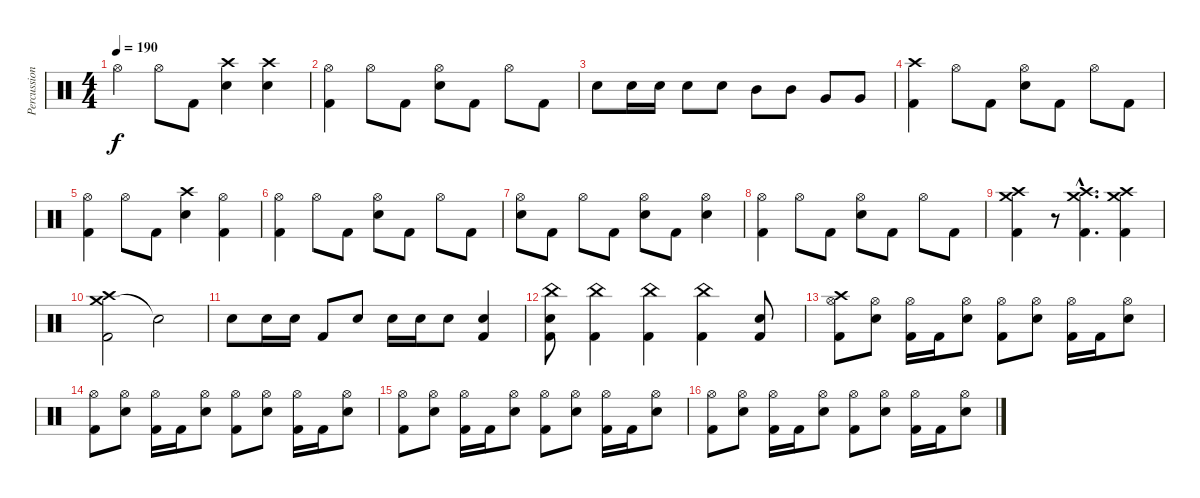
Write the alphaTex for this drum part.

\track ("Percussion" "Percussion") {instrument percussion}
\staff {score}
\articulation defaults
\ts (4 4)
\tempo 190
\clef neutral
\ks c "Hi-Hat (open)".4{dy f} "Hi-Hat (open)".8 "Kick (hit) 2".8
("Crash high (hit)" "Snare (hit) 2").4 ("Crash high (hit)" "Snare (hit) 2").4 |
("Hi-Hat (open)" "Kick (hit) 2").4 "Hi-Hat (open)".8 "Kick (hit) 2".8 ("Hi-Hat (open)" "Snare (hit) 2").8 "Kick (hit) 2".8 "Hi-Hat (open)".8 "Kick (hit) 2".8 |
"Snare (hit) 2".8 "Snare (hit) 2".16 "Snare (hit) 2".16 "Snare (hit) 2".8 "Snare (hit) 2".8 "Mid Tom (hit)".8 "Mid Tom (hit)".8 "Very Low Tom (hit)".8 "Very Low Tom (hit)".8 |
("Crash high (hit)" "Kick (hit) 2").4 "Hi-Hat (open)".8 "Kick (hit) 2".8 ("Hi-Hat (open)" "Snare (hit) 2").8 "Kick (hit) 2".8 "Hi-Hat (open)".8 "Kick (hit) 2".8 |
("Hi-Hat (open)" "Kick (hit) 2").4 "Hi-Hat (open)".8 "Kick (hit) 2".8 ("Crash high (hit)" "Snare (hit) 2").4 ("Hi-Hat (open)" "Kick (hit) 2").4 |
("Hi-Hat (open)" "Kick (hit) 2").4 "Hi-Hat (open)".8 "Kick (hit) 2".8 ("Hi-Hat (open)" "Snare (hit) 2").8 "Kick (hit) 2".8 "Hi-Hat (open)".8 "Kick (hit) 2".8 |
("Hi-Hat (open)" "Snare (hit) 2").8 "Kick (hit) 2".8 "Hi-Hat (open)".8 "Kick (hit) 2".8 ("Hi-Hat (open)" "Snare (hit) 2").8 "Kick (hit) 2".8 ("Hi-Hat (open)" "Snare (hit) 2").4 |
("Hi-Hat (open)" "Kick (hit) 2").4 "Hi-Hat (open)".8 "Kick (hit) 2".8 ("Hi-Hat (open)" "Snare (hit) 2").8 "Kick (hit) 2".8 "Hi-Hat (open)".8 "Kick (hit) 2".8 |
("Crash medium (hit)" "Crash high (hit)" "Kick (hit) 2").4 r.8 ("Crash medium (hit)"{hac} "Crash high (hit)"{hac} "Kick (hit) 2"{hac}).4{d} ("Crash medium (hit)" "Crash high (hit)" "Kick (hit) 2").4 |
("Crash medium (hit)" "Crash high (hit)" "Kick (hit) 2").2 "Snare (hit)"{t}.2 |
"Snare (hit) 2".8 "Snare (hit) 2".16 "Snare (hit) 2".16 "Kick (hit) 2".8 "Snare (hit) 2".8 "Snare (hit) 2".16 "Snare (hit) 2".16 "Snare (hit) 2".8 ("Snare (hit) 2" "Kick (hit) 2").4 |
("China (hit)" "Snare (hit) 2" "Kick (hit) 2").8 ("China (hit)" "Kick (hit) 2").4 ("China (hit)" "Kick (hit) 2").4 ("China (hit)" "Kick (hit) 2").4 ("Snare (hit) 2" "Kick (hit) 2").8 |
("Crash high (hit)" "Hi-Hat (open)" "Kick (hit) 2").8 ("Hi-Hat (open)" "Snare (hit) 2").8 ("Hi-Hat (open)" "Kick (hit) 2").16 "Kick (hit) 2".16 ("Hi-Hat (open)" "Snare (hit) 2").8 ("Hi-Hat (open)" "Kick (hit) 2").8 ("Hi-Hat (open)" "Snare (hit) 2").8 ("Hi-Hat (open)" "Kick (hit) 2").16 "Kick (hit) 2".16 ("Hi-Hat (open)" "Snare (hit) 2").8 |
("Hi-Hat (open)" "Kick (hit) 2").8 ("Hi-Hat (open)" "Snare (hit) 2").8 ("Hi-Hat (open)" "Kick (hit) 2").16 "Kick (hit) 2".16 ("Hi-Hat (open)" "Snare (hit) 2").8 ("Hi-Hat (open)" "Kick (hit) 2").8 ("Hi-Hat (open)" "Snare (hit) 2").8 ("Hi-Hat (open)" "Kick (hit) 2").16 "Kick (hit) 2".16 ("Hi-Hat (open)" "Snare (hit) 2").8 |
("Hi-Hat (open)" "Kick (hit) 2").8 ("Hi-Hat (open)" "Snare (hit) 2").8 ("Hi-Hat (open)" "Kick (hit) 2").16 "Kick (hit) 2".16 ("Hi-Hat (open)" "Snare (hit) 2").8 ("Hi-Hat (open)" "Kick (hit) 2").8 ("Hi-Hat (open)" "Snare (hit) 2").8 ("Hi-Hat (open)" "Kick (hit) 2").16 "Kick (hit) 2".16 ("Hi-Hat (open)" "Snare (hit) 2").8 |
("Hi-Hat (open)" "Kick (hit) 2").8 ("Hi-Hat (open)" "Snare (hit) 2").8 ("Hi-Hat (open)" "Kick (hit) 2").16 "Kick (hit) 2".16 ("Hi-Hat (open)" "Snare (hit) 2").8 ("Hi-Hat (open)" "Kick (hit) 2").8 ("Hi-Hat (open)" "Snare (hit) 2").8 ("Hi-Hat (open)" "Kick (hit) 2").16 "Kick (hit) 2".16 ("Hi-Hat (open)" "Snare (hit) 2").8
